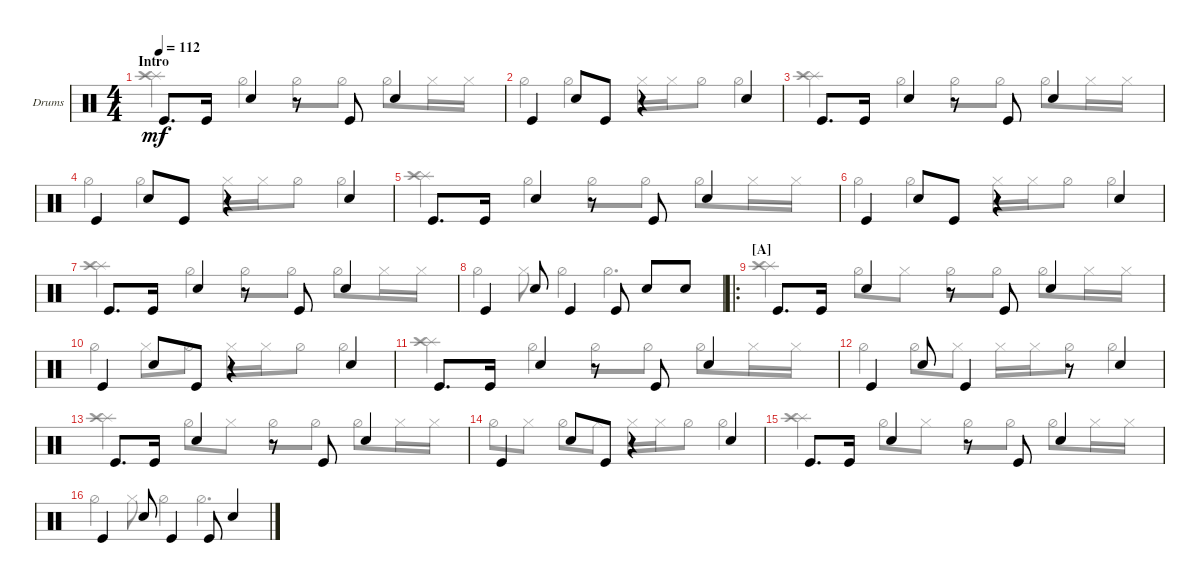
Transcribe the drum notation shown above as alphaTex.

\defaultSystemsLayout 4
\bracketExtendMode groupsimilarinstruments
\firstSystemTrackNameOrientation horizontal
\otherSystemsTrackNameOrientation horizontal
\track ("Drumkit" "Drums") {multiBarRest instrument percussion}
\staff {score}
\articulation defaults
\voice
\ts (4 4)
\section ("" "Intro")
\tempo 112
\clef neutral
\ks c "Kick (hit)".8{d dy mf} "Kick (hit)".16 "Snare (hit) 2".4
r.8 "Kick (hit)".8 "Snare (hit) 2".4 |
"Kick (hit)".4 "Snare (hit) 2".8 "Kick (hit)".8 r.4 "Snare (hit) 2".4 |
"Kick (hit)".8{d} "Kick (hit)".16 "Snare (hit) 2".4 r.8 "Kick (hit)".8 "Snare (hit) 2".4 |
"Kick (hit)".4 "Snare (hit) 2".8 "Kick (hit)".8 r.4 "Snare (hit) 2".4 |
"Kick (hit)".8{d} "Kick (hit)".16 "Snare (hit) 2".4 r.8 "Kick (hit)".8 "Snare (hit) 2".4 |
"Kick (hit)".4 "Snare (hit) 2".8 "Kick (hit)".8 r.4 "Snare (hit) 2".4 |
"Kick (hit)".8{d} "Kick (hit)".16 "Snare (hit) 2".4 r.8 "Kick (hit)".8 "Snare (hit) 2".4 |
"Kick (hit)".4 "Snare (hit) 2".8 "Kick (hit)".4 "Kick (hit)".8 "Snare (hit) 2".8 "Snare (hit) 2".8 |
\ro
\section ("A" "")
"Kick (hit)".8{d} "Kick (hit)".16 "Snare (hit) 2".4 r.8 "Kick (hit)".8 "Snare (hit) 2".4 |
"Kick (hit)".4 "Snare (hit) 2".8 "Kick (hit)".8 r.4 "Snare (hit) 2".4 |
"Kick (hit)".8{d} "Kick (hit)".16 "Snare (hit) 2".4 r.8 "Kick (hit)".8 "Snare (hit) 2".4 |
"Kick (hit)".4 "Snare (hit) 2".8 "Kick (hit)".4 r.8 "Snare (hit) 2".4 |
"Kick (hit)".8{d} "Kick (hit)".16 "Snare (hit) 2".4 r.8 "Kick (hit)".8 "Snare (hit) 2".4 |
"Kick (hit)".4 "Snare (hit) 2".8 "Kick (hit)".8 r.4 "Snare (hit) 2".4 |
"Kick (hit)".8{d} "Kick (hit)".16 "Snare (hit) 2".4 r.8 "Kick (hit)".8 "Snare (hit) 2".4 |
"Kick (hit)".4 "Snare (hit) 2".8 "Kick (hit)".4 "Kick (hit)".8 "Snare (hit) 2".4
\voice
\clef neutral
\ottava regular
\simile none
\ks c
("Splash (hit)" "Crash high (hit)").4{dy mf} "Hi-Hat (half)".4 "Hi-Hat (half)".8 "Hi-Hat (half)".8 "Hi-Hat (half)".8 "Hi-Hat (closed)".16 "Hi-Hat (closed)".16 |
"Hi-Hat (half)".4 "Hi-Hat (half)".4 "Hi-Hat (closed)".16 "Hi-Hat (closed)".16 "Hi-Hat (half)".8 "Hi-Hat (half)".4 |
("Splash (hit)" "Crash high (hit)").4 "Hi-Hat (half)".4 "Hi-Hat (half)".8 "Hi-Hat (half)".8 "Hi-Hat (half)".8 "Hi-Hat (closed)".16 "Hi-Hat (closed)".16 |
"Hi-Hat (half)".4 "Hi-Hat (half)".4 "Hi-Hat (closed)".16 "Hi-Hat (closed)".16 "Hi-Hat (half)".8 "Hi-Hat (half)".4 |
("Splash (hit)" "Crash high (hit)").4 "Hi-Hat (half)".4 "Hi-Hat (half)".8 "Hi-Hat (half)".8 "Hi-Hat (half)".8 "Hi-Hat (closed)".16 "Hi-Hat (closed)".16 |
"Hi-Hat (half)".4 "Hi-Hat (half)".4 "Hi-Hat (closed)".16 "Hi-Hat (closed)".16 "Hi-Hat (half)".8 "Hi-Hat (half)".4 |
("Splash (hit)" "Crash high (hit)").4 "Hi-Hat (half)".4 "Hi-Hat (half)".8 "Hi-Hat (half)".8 "Hi-Hat (half)".8 "Hi-Hat (closed)".16 "Hi-Hat (closed)".16 |
"Hi-Hat (half)".4 "Hi-Hat (closed)".8 "Hi-Hat (half)".4 "Hi-Hat (half)".4{d} |
("Splash (hit)" "Crash high (hit)").4 "Hi-Hat (half)".8 "Hi-Hat (closed)".8 "Hi-Hat (half)".8 "Hi-Hat (half)".8 "Hi-Hat (half)".8 "Hi-Hat (closed)".16 "Hi-Hat (closed)".16 |
"Hi-Hat (half)".4 "Hi-Hat (closed)".8 "Hi-Hat (half)".8 "Hi-Hat (closed)".16 "Hi-Hat (closed)".16 "Hi-Hat (half)".8 "Hi-Hat (half)".4 |
("Splash (hit)" "Crash high (hit)").4 "Hi-Hat (half)".4 "Hi-Hat (half)".8 "Hi-Hat (half)".8 "Hi-Hat (half)".8 "Hi-Hat (closed)".16 "Hi-Hat (closed)".16 |
"Hi-Hat (half)".4 "Hi-Hat (half)".8 "Hi-Hat (closed)".8 "Hi-Hat (closed)".16 "Hi-Hat (closed)".16 "Hi-Hat (half)".8 "Hi-Hat (half)".4 |
("Splash (hit)" "Crash high (hit)").4 "Hi-Hat (half)".8 "Hi-Hat (closed)".8 "Hi-Hat (half)".8 "Hi-Hat (half)".8 "Hi-Hat (half)".8 "Hi-Hat (closed)".16 "Hi-Hat (closed)".16 |
"Hi-Hat (half)".8 "Hi-Hat (closed)".8 "Hi-Hat (half)".8 "Hi-Hat (closed)".8 "Hi-Hat (closed)".16 "Hi-Hat (closed)".16 "Hi-Hat (half)".8 "Hi-Hat (half)".4 |
("Splash (hit)" "Crash high (hit)").4 "Hi-Hat (half)".8 "Hi-Hat (closed)".8 "Hi-Hat (half)".8 "Hi-Hat (half)".8 "Hi-Hat (half)".8 "Hi-Hat (closed)".16 "Hi-Hat (closed)".16 |
"Hi-Hat (half)".4 "Hi-Hat (closed)".8 "Hi-Hat (half)".4 "Hi-Hat (half)".4{d}
